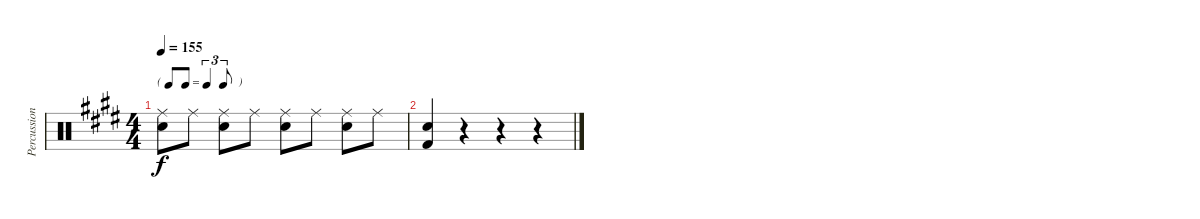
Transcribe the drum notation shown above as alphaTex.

\track ("Percussion" "Percussion") {instrument percussion}
\staff {score}
\articulation defaults
\ts (4 4)
\tf triplet8th
\tempo 155
\clef neutral
\ks e
("Ride (middle)" "Snare (hit) 2").8{dy f} "Ride (middle)".8 ("Ride (middle)" "Snare (hit) 2").8 "Ride (middle)".8 ("Ride (middle)" "Snare (hit) 2").8 "Ride (middle)".8 ("Ride (middle)" "Snare (hit) 2").8 "Ride (middle)".8 |
("Snare (hit) 2" "Kick (hit) 2").4 r.4 r.4 r.4
